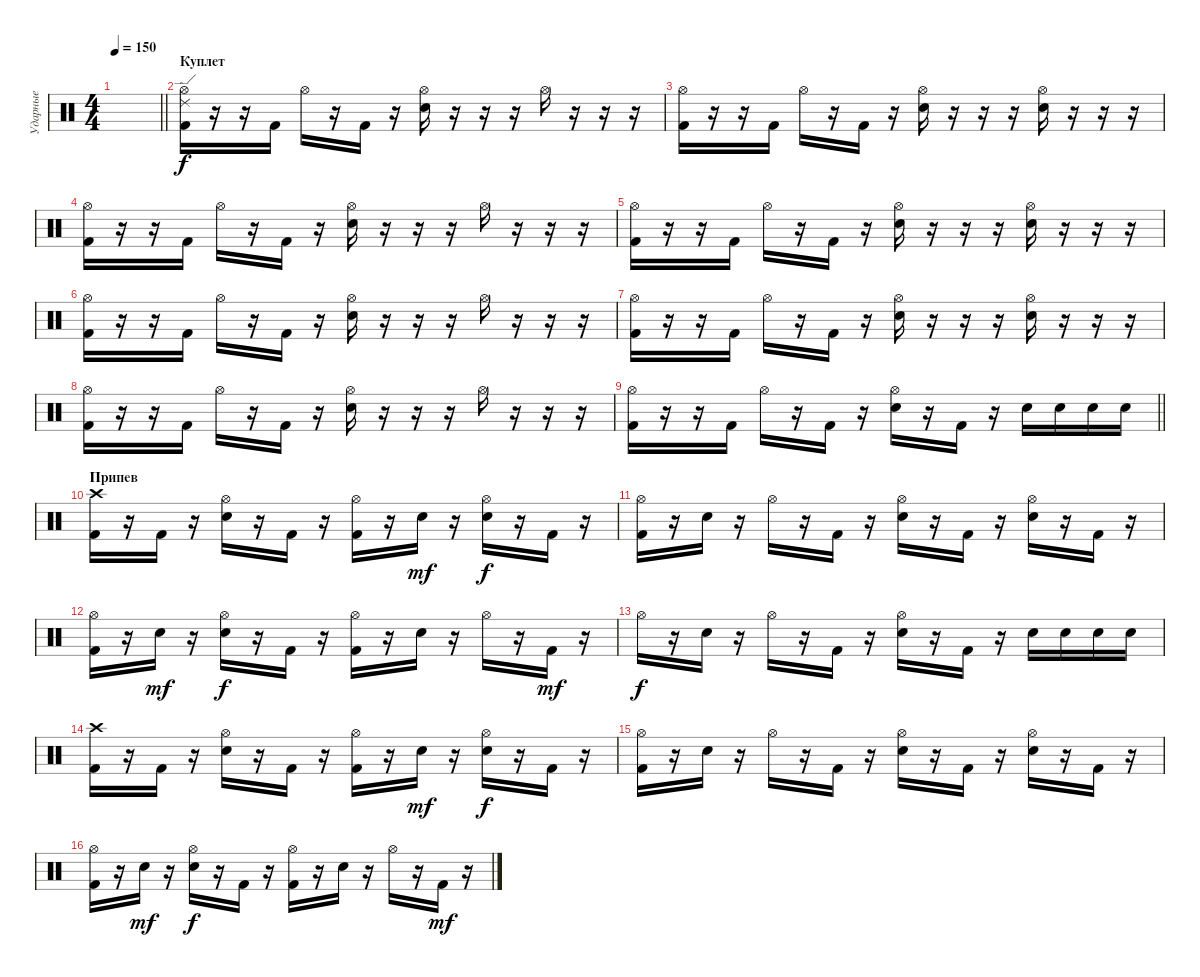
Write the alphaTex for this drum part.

\track ("Ударные" "Ударные") {instrument percussion}
\staff {score}
\articulation defaults
\ts (4 4)
\tempo 150
\clef neutral
\barLineRight lightlight
\ks c
|
\section ("" "Куплет")
("Hi-Hat (open)" "Ride (edge) 2" "Kick (hit) 2").16 r.16 r.16 "Kick (hit) 2".16 "Hi-Hat (open)".16 r.16 "Kick (hit) 2".16 r.16 ("Hi-Hat (open)" "Electric Snare (hit)").16 r.16 r.16 r.16 "Hi-Hat (open)".16 r.16 r.16 r.16 |
("Hi-Hat (open)" "Kick (hit) 2").16 r.16 r.16 "Kick (hit) 2".16 "Hi-Hat (open)".16 r.16 "Kick (hit) 2".16 r.16 ("Hi-Hat (open)" "Electric Snare (hit)").16 r.16 r.16 r.16 ("Hi-Hat (open)" "Electric Snare (hit)").16 r.16 r.16 r.16 |
("Hi-Hat (open)" "Kick (hit) 2").16 r.16 r.16 "Kick (hit) 2".16 "Hi-Hat (open)".16 r.16 "Kick (hit) 2".16 r.16 ("Hi-Hat (open)" "Electric Snare (hit)").16 r.16 r.16 r.16 "Hi-Hat (open)".16 r.16 r.16 r.16 |
("Hi-Hat (open)" "Kick (hit) 2").16 r.16 r.16 "Kick (hit) 2".16 "Hi-Hat (open)".16 r.16 "Kick (hit) 2".16 r.16 ("Hi-Hat (open)" "Electric Snare (hit)").16 r.16 r.16 r.16 ("Hi-Hat (open)" "Electric Snare (hit)").16 r.16 r.16 r.16 |
("Hi-Hat (open)" "Kick (hit) 2").16 r.16 r.16 "Kick (hit) 2".16 "Hi-Hat (open)".16 r.16 "Kick (hit) 2".16 r.16 ("Hi-Hat (open)" "Electric Snare (hit)").16 r.16 r.16 r.16 "Hi-Hat (open)".16 r.16 r.16 r.16 |
("Hi-Hat (open)" "Kick (hit) 2").16 r.16 r.16 "Kick (hit) 2".16 "Hi-Hat (open)".16 r.16 "Kick (hit) 2".16 r.16 ("Hi-Hat (open)" "Electric Snare (hit)").16 r.16 r.16 r.16 ("Hi-Hat (open)" "Electric Snare (hit)").16 r.16 r.16 r.16 |
("Hi-Hat (open)" "Kick (hit) 2").16 r.16 r.16 "Kick (hit) 2".16 "Hi-Hat (open)".16 r.16 "Kick (hit) 2".16 r.16 ("Hi-Hat (open)" "Electric Snare (hit)").16 r.16 r.16 r.16 "Hi-Hat (open)".16 r.16 r.16 r.16 |
\barLineRight lightlight
("Hi-Hat (open)" "Kick (hit) 2").16 r.16 r.16 "Kick (hit) 2".16 "Hi-Hat (open)".16 r.16 "Kick (hit) 2".16 r.16 ("Hi-Hat (open)" "Electric Snare (hit)").16 r.16 "Kick (hit) 2".16 r.16 "Electric Snare (hit)".16 "Electric Snare (hit)".16 "Electric Snare (hit)".16 "Electric Snare (hit)".16 |
\section ("" "Припев")
("Crash high (hit)" "Kick (hit) 2").16 r.16 "Kick (hit) 2".16 r.16 ("Hi-Hat (open)" "Electric Snare (hit)").16 r.16 "Kick (hit) 2".16 r.16 ("Hi-Hat (open)" "Kick (hit) 2").16 r.16 "Electric Snare (hit)".16{dy mf} r.16 ("Hi-Hat (open)" "Electric Snare (hit)").16{dy f} r.16 "Kick (hit) 2".16 r.16 |
("Hi-Hat (open)" "Kick (hit) 2").16 r.16 "Electric Snare (hit)".16 r.16 "Hi-Hat (open)".16 r.16 "Kick (hit) 2".16 r.16 ("Hi-Hat (open)" "Electric Snare (hit)").16 r.16 "Kick (hit) 2".16 r.16 ("Hi-Hat (open)" "Electric Snare (hit)").16 r.16 "Kick (hit) 2".16 r.16 |
("Hi-Hat (open)" "Kick (hit) 2").16 r.16 "Electric Snare (hit)".16{dy mf} r.16 ("Hi-Hat (open)" "Electric Snare (hit)").16{dy f} r.16 "Kick (hit) 2".16 r.16 ("Hi-Hat (open)" "Kick (hit) 2").16 r.16 "Electric Snare (hit)".16 r.16 "Hi-Hat (open)".16 r.16 "Kick (hit) 2".16{dy mf} r.16 |
"Hi-Hat (open)".16{dy f} r.16 "Electric Snare (hit)".16 r.16 "Hi-Hat (open)".16 r.16 "Kick (hit) 2".16 r.16 ("Hi-Hat (open)" "Electric Snare (hit)").16 r.16 "Kick (hit) 2".16 r.16 "Electric Snare (hit)".16 "Electric Snare (hit)".16 "Electric Snare (hit)".16 "Electric Snare (hit)".16 |
("Crash high (hit)" "Kick (hit) 2").16 r.16 "Kick (hit) 2".16 r.16 ("Hi-Hat (open)" "Electric Snare (hit)").16 r.16 "Kick (hit) 2".16 r.16 ("Hi-Hat (open)" "Kick (hit) 2").16 r.16 "Electric Snare (hit)".16{dy mf} r.16 ("Hi-Hat (open)" "Electric Snare (hit)").16{dy f} r.16 "Kick (hit) 2".16 r.16 |
("Hi-Hat (open)" "Kick (hit) 2").16 r.16 "Electric Snare (hit)".16 r.16 "Hi-Hat (open)".16 r.16 "Kick (hit) 2".16 r.16 ("Hi-Hat (open)" "Electric Snare (hit)").16 r.16 "Kick (hit) 2".16 r.16 ("Hi-Hat (open)" "Electric Snare (hit)").16 r.16 "Kick (hit) 2".16 r.16 |
("Hi-Hat (open)" "Kick (hit) 2").16 r.16 "Electric Snare (hit)".16{dy mf} r.16 ("Hi-Hat (open)" "Electric Snare (hit)").16{dy f} r.16 "Kick (hit) 2".16 r.16 ("Hi-Hat (open)" "Kick (hit) 2").16 r.16 "Electric Snare (hit)".16 r.16 "Hi-Hat (open)".16 r.16 "Kick (hit) 2".16{dy mf} r.16
